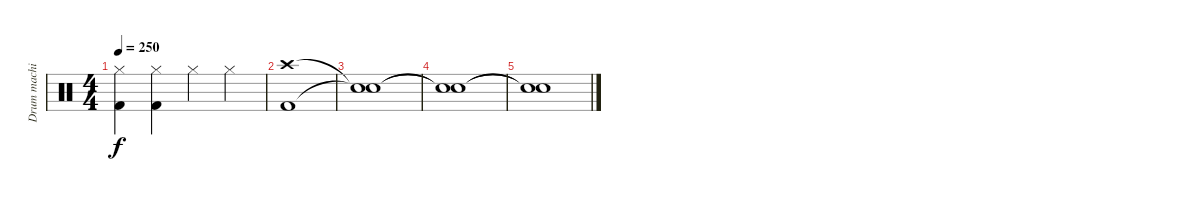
\track ("Drum machine" "Drum machi") {instrument percussion}
\staff {score}
\articulation defaults
\ts (4 4)
\tempo 250
\clef neutral
\ks c
("Hi-Hat (closed)" "Kick (hit) 2").4{dy f} ("Hi-Hat (closed)" "Kick (hit) 2").4 "Hi-Hat (closed)".4 "Hi-Hat (closed)".4 |
("Crash high (hit)" "Kick (hit) 2").1 |
("Snare (hit)"{t} "Snare (hit)"{t}).1 |
("Snare (hit)"{t} "Snare (hit)"{t}).1 |
("Snare (hit)"{t} "Snare (hit)"{t}).1
